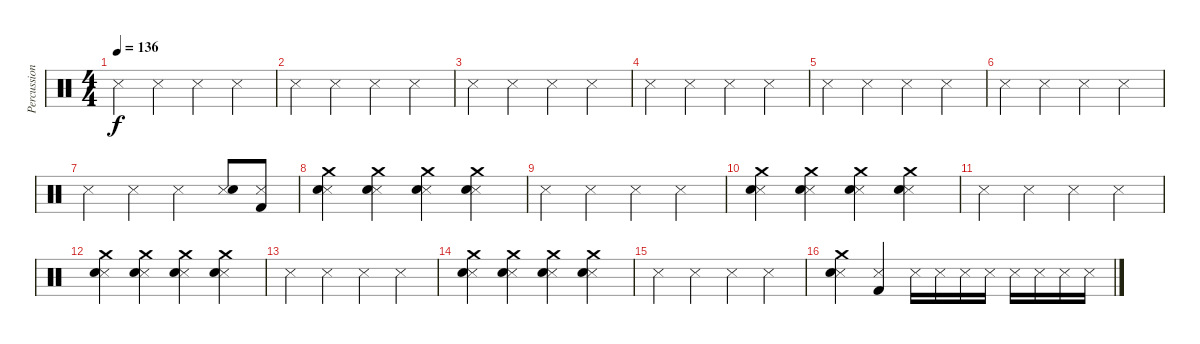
\track ("Percussions" "Percussion") {instrument percussion}
\staff {score}
\articulation defaults
\ts (4 4)
\tempo 136
\clef neutral
\ks c "Snare (side stick) 3".4{dy f} "Snare (side stick) 3".4 "Snare (side stick) 3".4 "Snare (side stick) 3".4
|
"Snare (side stick) 3".4 "Snare (side stick) 3".4 "Snare (side stick) 3".4 "Snare (side stick) 3".4 |
"Snare (side stick) 3".4 "Snare (side stick) 3".4 "Snare (side stick) 3".4 "Snare (side stick) 3".4 |
"Snare (side stick) 3".4 "Snare (side stick) 3".4 "Snare (side stick) 3".4 "Snare (side stick) 3".4 |
"Snare (side stick) 3".4 "Snare (side stick) 3".4 "Snare (side stick) 3".4 "Snare (side stick) 3".4 |
"Snare (side stick) 3".4 "Snare (side stick) 3".4 "Snare (side stick) 3".4 "Snare (side stick) 3".4 |
"Snare (side stick) 3".4 "Snare (side stick) 3".4 "Snare (side stick) 3".4 ("Snare (side stick) 3" "Electric Snare (hit)").8 ("Snare (side stick) 3" "Kick (hit) 2").8 |
("Snare (side stick) 3" "Electric Snare (hit)" "Crash medium (hit)").4 ("Snare (side stick) 3" "Electric Snare (hit)" "Crash medium (hit)").4 ("Snare (side stick) 3" "Electric Snare (hit)" "Crash medium (hit)").4 ("Snare (side stick) 3" "Electric Snare (hit)" "Crash medium (hit)").4 |
"Snare (side stick) 3".4 "Snare (side stick) 3".4 "Snare (side stick) 3".4 "Snare (side stick) 3".4 |
("Snare (side stick) 3" "Electric Snare (hit)" "Crash medium (hit)").4 ("Snare (side stick) 3" "Electric Snare (hit)" "Crash medium (hit)").4 ("Snare (side stick) 3" "Electric Snare (hit)" "Crash medium (hit)").4 ("Snare (side stick) 3" "Electric Snare (hit)" "Crash medium (hit)").4 |
"Snare (side stick) 3".4 "Snare (side stick) 3".4 "Snare (side stick) 3".4 "Snare (side stick) 3".4 |
("Snare (side stick) 3" "Electric Snare (hit)" "Crash medium (hit)").4 ("Snare (side stick) 3" "Electric Snare (hit)" "Crash medium (hit)").4 ("Snare (side stick) 3" "Electric Snare (hit)" "Crash medium (hit)").4 ("Snare (side stick) 3" "Electric Snare (hit)" "Crash medium (hit)").4 |
"Snare (side stick) 3".4 "Snare (side stick) 3".4 "Snare (side stick) 3".4 "Snare (side stick) 3".4 |
("Snare (side stick) 3" "Electric Snare (hit)" "Crash medium (hit)").4 ("Snare (side stick) 3" "Electric Snare (hit)" "Crash medium (hit)").4 ("Snare (side stick) 3" "Electric Snare (hit)" "Crash medium (hit)").4 ("Snare (side stick) 3" "Electric Snare (hit)" "Crash medium (hit)").4 |
"Snare (side stick) 3".4 "Snare (side stick) 3".4 "Snare (side stick) 3".4 "Snare (side stick) 3".4 |
("Snare (side stick) 3" "Electric Snare (hit)" "Crash medium (hit)").4 ("Snare (side stick) 3" "Kick (hit) 2").4 "Snare (side stick) 3".16 "Snare (side stick) 3".16 "Snare (side stick) 3".16 "Snare (side stick) 3".16 "Snare (side stick) 3".16 "Snare (side stick) 3".16 "Snare (side stick) 3".16 "Snare (side stick) 3".16
